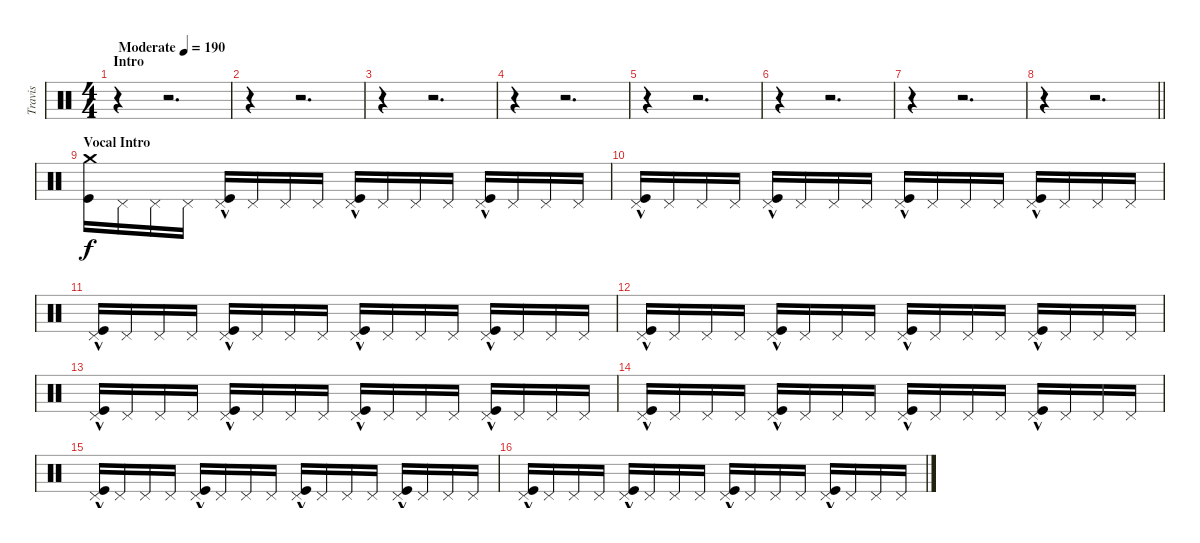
\track ("Travis" "Travis") {instrument percussion}
\staff {score}
\articulation defaults
\ts (4 4)
\section ("" "Intro")
\tempo (190 "Moderate")
\clef neutral
\ks c
r.4{dy f} r.2{d} |
r.4 r.2{d} |
r.4 r.2{d} |
r.4 r.2{d} |
r.4 r.2{d} |
r.4 r.2{d} |
r.4 r.2{d} |
\barLineRight lightlight
r.4 r.2{d} |
\section ("" "Vocal Intro")
("Crash medium (hit)" "Kick (hit)").16 "Pedal Hi-Hat (hit)".16 "Pedal Hi-Hat (hit)".16 "Pedal Hi-Hat (hit)".16 ("Pedal Hi-Hat (hit)"{hac} "Kick (hit)").16 "Pedal Hi-Hat (hit)".16 "Pedal Hi-Hat (hit)".16 "Pedal Hi-Hat (hit)".16 ("Pedal Hi-Hat (hit)"{hac} "Kick (hit)").16 "Pedal Hi-Hat (hit)".16 "Pedal Hi-Hat (hit)".16 "Pedal Hi-Hat (hit)".16 ("Pedal Hi-Hat (hit)"{hac} "Kick (hit)").16 "Pedal Hi-Hat (hit)".16 "Pedal Hi-Hat (hit)".16 "Pedal Hi-Hat (hit)".16 |
("Pedal Hi-Hat (hit)"{hac} "Kick (hit)").16 "Pedal Hi-Hat (hit)".16 "Pedal Hi-Hat (hit)".16 "Pedal Hi-Hat (hit)".16 ("Pedal Hi-Hat (hit)"{hac} "Kick (hit)").16 "Pedal Hi-Hat (hit)".16 "Pedal Hi-Hat (hit)".16 "Pedal Hi-Hat (hit)".16 ("Pedal Hi-Hat (hit)"{hac} "Kick (hit)").16 "Pedal Hi-Hat (hit)".16 "Pedal Hi-Hat (hit)".16 "Pedal Hi-Hat (hit)".16 ("Pedal Hi-Hat (hit)"{hac} "Kick (hit)").16 "Pedal Hi-Hat (hit)".16 "Pedal Hi-Hat (hit)".16 "Pedal Hi-Hat (hit)".16 |
("Pedal Hi-Hat (hit)"{hac} "Kick (hit)").16 "Pedal Hi-Hat (hit)".16 "Pedal Hi-Hat (hit)".16 "Pedal Hi-Hat (hit)".16 ("Pedal Hi-Hat (hit)"{hac} "Kick (hit)").16 "Pedal Hi-Hat (hit)".16 "Pedal Hi-Hat (hit)".16 "Pedal Hi-Hat (hit)".16 ("Pedal Hi-Hat (hit)"{hac} "Kick (hit)").16 "Pedal Hi-Hat (hit)".16 "Pedal Hi-Hat (hit)".16 "Pedal Hi-Hat (hit)".16 ("Pedal Hi-Hat (hit)"{hac} "Kick (hit)").16 "Pedal Hi-Hat (hit)".16 "Pedal Hi-Hat (hit)".16 "Pedal Hi-Hat (hit)".16 |
("Pedal Hi-Hat (hit)"{hac} "Kick (hit)").16 "Pedal Hi-Hat (hit)".16 "Pedal Hi-Hat (hit)".16 "Pedal Hi-Hat (hit)".16 ("Pedal Hi-Hat (hit)"{hac} "Kick (hit)").16 "Pedal Hi-Hat (hit)".16 "Pedal Hi-Hat (hit)".16 "Pedal Hi-Hat (hit)".16 ("Pedal Hi-Hat (hit)"{hac} "Kick (hit)").16 "Pedal Hi-Hat (hit)".16 "Pedal Hi-Hat (hit)".16 "Pedal Hi-Hat (hit)".16 ("Pedal Hi-Hat (hit)"{hac} "Kick (hit)").16 "Pedal Hi-Hat (hit)".16 "Pedal Hi-Hat (hit)".16 "Pedal Hi-Hat (hit)".16 |
("Pedal Hi-Hat (hit)"{hac} "Kick (hit)").16 "Pedal Hi-Hat (hit)".16 "Pedal Hi-Hat (hit)".16 "Pedal Hi-Hat (hit)".16 ("Pedal Hi-Hat (hit)"{hac} "Kick (hit)").16 "Pedal Hi-Hat (hit)".16 "Pedal Hi-Hat (hit)".16 "Pedal Hi-Hat (hit)".16 ("Pedal Hi-Hat (hit)"{hac} "Kick (hit)").16 "Pedal Hi-Hat (hit)".16 "Pedal Hi-Hat (hit)".16 "Pedal Hi-Hat (hit)".16 ("Pedal Hi-Hat (hit)"{hac} "Kick (hit)").16 "Pedal Hi-Hat (hit)".16 "Pedal Hi-Hat (hit)".16 "Pedal Hi-Hat (hit)".16 |
("Pedal Hi-Hat (hit)"{hac} "Kick (hit)").16 "Pedal Hi-Hat (hit)".16 "Pedal Hi-Hat (hit)".16 "Pedal Hi-Hat (hit)".16 ("Pedal Hi-Hat (hit)"{hac} "Kick (hit)").16 "Pedal Hi-Hat (hit)".16 "Pedal Hi-Hat (hit)".16 "Pedal Hi-Hat (hit)".16 ("Pedal Hi-Hat (hit)"{hac} "Kick (hit)").16 "Pedal Hi-Hat (hit)".16 "Pedal Hi-Hat (hit)".16 "Pedal Hi-Hat (hit)".16 ("Pedal Hi-Hat (hit)"{hac} "Kick (hit)").16 "Pedal Hi-Hat (hit)".16 "Pedal Hi-Hat (hit)".16 "Pedal Hi-Hat (hit)".16 |
("Pedal Hi-Hat (hit)"{hac} "Kick (hit)").16 "Pedal Hi-Hat (hit)".16 "Pedal Hi-Hat (hit)".16 "Pedal Hi-Hat (hit)".16 ("Pedal Hi-Hat (hit)"{hac} "Kick (hit)").16 "Pedal Hi-Hat (hit)".16 "Pedal Hi-Hat (hit)".16 "Pedal Hi-Hat (hit)".16 ("Pedal Hi-Hat (hit)"{hac} "Kick (hit)").16 "Pedal Hi-Hat (hit)".16 "Pedal Hi-Hat (hit)".16 "Pedal Hi-Hat (hit)".16 ("Pedal Hi-Hat (hit)"{hac} "Kick (hit)").16 "Pedal Hi-Hat (hit)".16 "Pedal Hi-Hat (hit)".16 "Pedal Hi-Hat (hit)".16 |
("Pedal Hi-Hat (hit)"{hac} "Kick (hit)").16 "Pedal Hi-Hat (hit)".16 "Pedal Hi-Hat (hit)".16 "Pedal Hi-Hat (hit)".16 ("Pedal Hi-Hat (hit)"{hac} "Kick (hit)").16 "Pedal Hi-Hat (hit)".16 "Pedal Hi-Hat (hit)".16 "Pedal Hi-Hat (hit)".16 ("Pedal Hi-Hat (hit)"{hac} "Kick (hit)").16 "Pedal Hi-Hat (hit)".16 "Pedal Hi-Hat (hit)".16 "Pedal Hi-Hat (hit)".16 ("Pedal Hi-Hat (hit)"{hac} "Kick (hit)").16 "Pedal Hi-Hat (hit)".16 "Pedal Hi-Hat (hit)".16 "Pedal Hi-Hat (hit)".16
